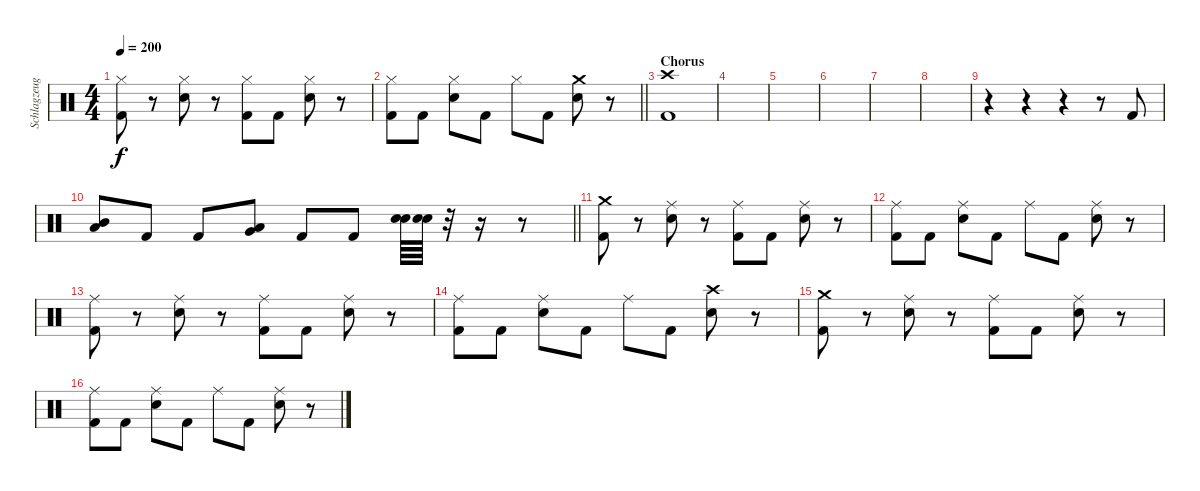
\track ("Schlagzeug" "Schlagzeug") {instrument percussion}
\staff {score}
\articulation defaults
\ts (4 4)
\tempo 200
\clef neutral
\ks c
("Hi-Hat (closed)" "Kick (hit) 2").8{dy f} r.8 ("Hi-Hat (closed)" "Electric Snare (hit)").8 r.8 ("Hi-Hat (closed)" "Kick (hit) 2").8 "Kick (hit) 2".8 ("Hi-Hat (closed)" "Electric Snare (hit)").8 r.8 |
\barLineRight lightlight
("Hi-Hat (closed)" "Kick (hit) 2").8 "Kick (hit) 2".8 ("Hi-Hat (closed)" "Electric Snare (hit)").8 "Kick (hit) 2".8 "Hi-Hat (closed)".8 "Kick (hit) 2".8 ("Crash medium (hit)" "Electric Snare (hit)").8 r.8 |
\section ("" "Chorus")
("Crash high (hit)" "Kick (hit) 2").1 |
|
|
|
|
|
r.4 r.4 r.4 r.8 "Kick (hit) 2".8 |
\barLineRight lightlight
("Mid Tom (hit)" "Low Tom (hit)").8 "Kick (hit) 2".8 "Kick (hit) 2".8 ("Low Tom (hit)" "Very Low Tom (hit)").8 "Kick (hit) 2".8 "Kick (hit) 2".8 ("Electric Snare (hit)" "Electric Snare (hit)").64 ("Electric Snare (hit)" "Electric Snare (hit)").64 r.32 r.16 r.8 |
\section ("" "")
("Crash medium (hit)" "Kick (hit) 2").8 r.8 ("Ride (middle)" "Electric Snare (hit)").8 r.8 ("Ride (middle)" "Kick (hit) 2").8 "Kick (hit) 2".8 ("Ride (middle)" "Electric Snare (hit)").8 r.8 |
("Ride (middle)" "Kick (hit) 2").8 "Kick (hit) 2".8 ("Ride (middle)" "Electric Snare (hit)").8 "Kick (hit) 2".8 "Ride (middle)".8 "Kick (hit) 2".8 ("Ride (middle)" "Electric Snare (hit)").8 r.8 |
("Ride (middle)" "Kick (hit) 2").8 r.8 ("Ride (middle)" "Electric Snare (hit)").8 r.8 ("Ride (middle)" "Kick (hit) 2").8 "Kick (hit) 2".8 ("Ride (middle)" "Electric Snare (hit)").8 r.8 |
("Ride (middle)" "Kick (hit) 2").8 "Kick (hit) 2".8 ("Ride (middle)" "Electric Snare (hit)").8 "Kick (hit) 2".8 "Ride (middle)".8 "Kick (hit) 2".8 ("Crash high (hit)" "Electric Snare (hit)").8 r.8 |
("Crash medium (hit)" "Kick (hit) 2").8 r.8 ("Ride (middle)" "Electric Snare (hit)").8 r.8 ("Ride (middle)" "Kick (hit) 2").8 "Kick (hit) 2".8 ("Ride (middle)" "Electric Snare (hit)").8 r.8 |
("Ride (middle)" "Kick (hit) 2").8 "Kick (hit) 2".8 ("Ride (middle)" "Electric Snare (hit)").8 "Kick (hit) 2".8 "Ride (middle)".8 "Kick (hit) 2".8 ("Ride (middle)" "Electric Snare (hit)").8 r.8
